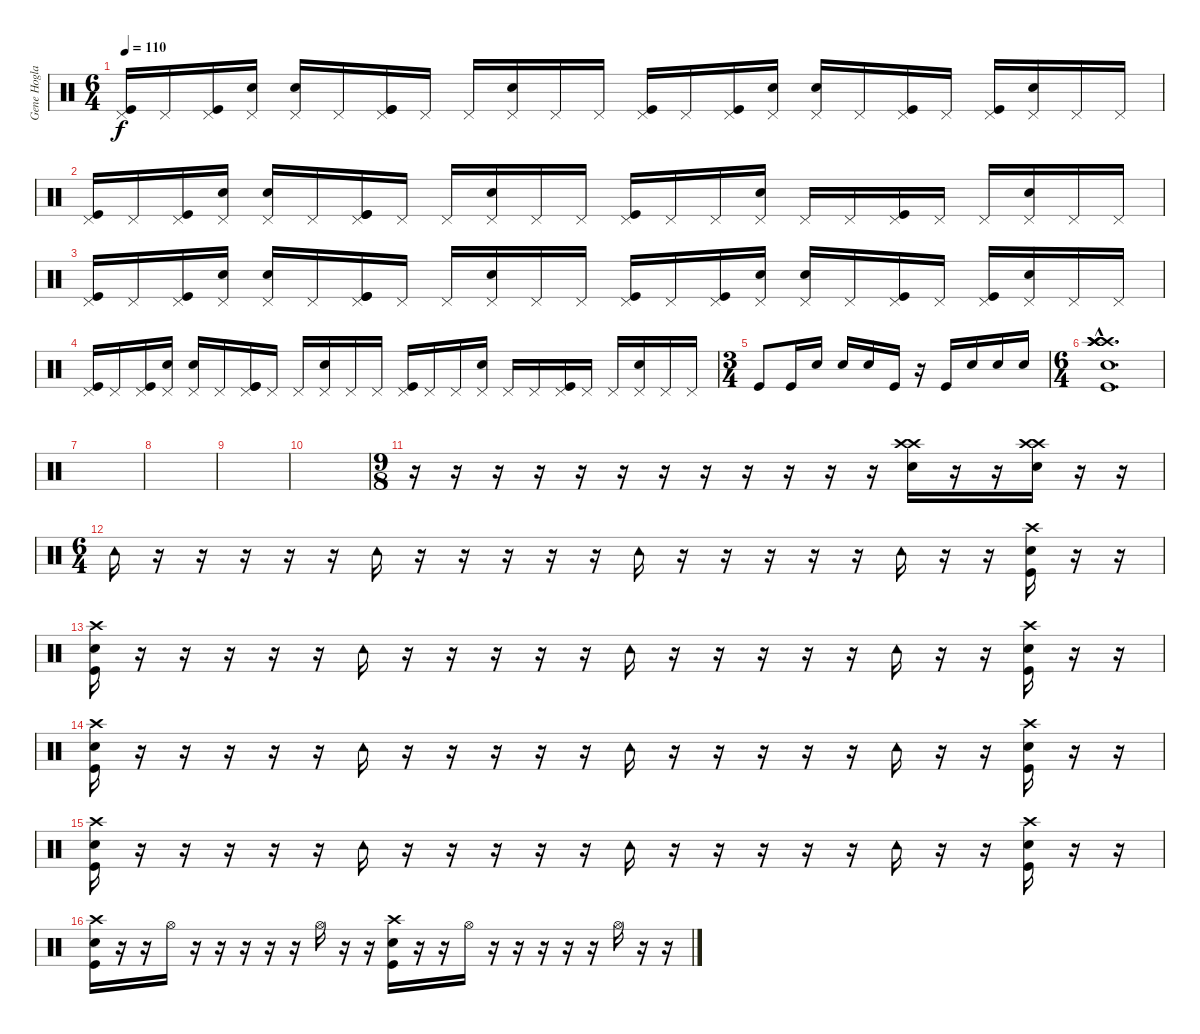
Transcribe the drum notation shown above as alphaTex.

\track ("Gene Hoglan" "Gene Hogla") {instrument percussion}
\staff {score}
\articulation defaults
\ts (6 4)
\tempo 110
\clef neutral
\ks c
("Pedal Hi-Hat (hit)" "Kick (hit)").16{dy f} "Pedal Hi-Hat (hit)".16 ("Pedal Hi-Hat (hit)" "Kick (hit)").16 ("Pedal Hi-Hat (hit)" "Snare (hit) 2").16 ("Pedal Hi-Hat (hit)" "Snare (hit) 2").16 "Pedal Hi-Hat (hit)".16 ("Pedal Hi-Hat (hit)" "Kick (hit)" "Kick (hit)").16 "Pedal Hi-Hat (hit)".16 "Pedal Hi-Hat (hit)".16 ("Pedal Hi-Hat (hit)" "Snare (hit) 2").16 "Pedal Hi-Hat (hit)".16 "Pedal Hi-Hat (hit)".16 ("Pedal Hi-Hat (hit)" "Kick (hit)").16 "Pedal Hi-Hat (hit)".16 ("Pedal Hi-Hat (hit)" "Kick (hit)").16 ("Pedal Hi-Hat (hit)" "Snare (hit) 2").16 ("Pedal Hi-Hat (hit)" "Snare (hit) 2").16 "Pedal Hi-Hat (hit)".16 ("Pedal Hi-Hat (hit)" "Kick (hit)").16 "Pedal Hi-Hat (hit)".16 ("Pedal Hi-Hat (hit)" "Kick (hit)").16 ("Pedal Hi-Hat (hit)" "Snare (hit) 2").16 "Pedal Hi-Hat (hit)".16 "Pedal Hi-Hat (hit)".16 |
("Pedal Hi-Hat (hit)" "Kick (hit)").16 "Pedal Hi-Hat (hit)".16 ("Pedal Hi-Hat (hit)" "Kick (hit)").16 ("Pedal Hi-Hat (hit)" "Snare (hit) 2").16 ("Pedal Hi-Hat (hit)" "Snare (hit) 2").16 "Pedal Hi-Hat (hit)".16 ("Pedal Hi-Hat (hit)" "Kick (hit)" "Kick (hit)").16 "Pedal Hi-Hat (hit)".16 "Pedal Hi-Hat (hit)".16 ("Pedal Hi-Hat (hit)" "Snare (hit) 2").16 "Pedal Hi-Hat (hit)".16 "Pedal Hi-Hat (hit)".16 ("Pedal Hi-Hat (hit)" "Kick (hit)").16 "Pedal Hi-Hat (hit)".16 "Pedal Hi-Hat (hit)".16 ("Pedal Hi-Hat (hit)" "Snare (hit) 2").16 "Pedal Hi-Hat (hit)".16 "Pedal Hi-Hat (hit)".16 ("Pedal Hi-Hat (hit)" "Kick (hit)").16 "Pedal Hi-Hat (hit)".16 "Pedal Hi-Hat (hit)".16 ("Pedal Hi-Hat (hit)" "Snare (hit) 2").16 "Pedal Hi-Hat (hit)".16 "Pedal Hi-Hat (hit)".16 |
("Pedal Hi-Hat (hit)" "Kick (hit)").16 "Pedal Hi-Hat (hit)".16 ("Pedal Hi-Hat (hit)" "Kick (hit)").16 ("Pedal Hi-Hat (hit)" "Snare (hit) 2").16 ("Pedal Hi-Hat (hit)" "Snare (hit) 2").16 "Pedal Hi-Hat (hit)".16 ("Pedal Hi-Hat (hit)" "Kick (hit)" "Kick (hit)").16 "Pedal Hi-Hat (hit)".16 "Pedal Hi-Hat (hit)".16 ("Pedal Hi-Hat (hit)" "Snare (hit) 2").16 "Pedal Hi-Hat (hit)".16 "Pedal Hi-Hat (hit)".16 ("Pedal Hi-Hat (hit)" "Kick (hit)").16 "Pedal Hi-Hat (hit)".16 ("Pedal Hi-Hat (hit)" "Kick (hit)").16 ("Pedal Hi-Hat (hit)" "Snare (hit) 2").16 ("Pedal Hi-Hat (hit)" "Snare (hit) 2").16 "Pedal Hi-Hat (hit)".16 ("Pedal Hi-Hat (hit)" "Kick (hit)").16 "Pedal Hi-Hat (hit)".16 ("Pedal Hi-Hat (hit)" "Kick (hit)").16 ("Pedal Hi-Hat (hit)" "Snare (hit) 2").16 "Pedal Hi-Hat (hit)".16 "Pedal Hi-Hat (hit)".16 |
("Pedal Hi-Hat (hit)" "Kick (hit)").16 "Pedal Hi-Hat (hit)".16 ("Pedal Hi-Hat (hit)" "Kick (hit)").16 ("Pedal Hi-Hat (hit)" "Snare (hit) 2").16 ("Pedal Hi-Hat (hit)" "Snare (hit) 2").16 "Pedal Hi-Hat (hit)".16 ("Pedal Hi-Hat (hit)" "Kick (hit)" "Kick (hit)").16 "Pedal Hi-Hat (hit)".16 "Pedal Hi-Hat (hit)".16 ("Pedal Hi-Hat (hit)" "Snare (hit) 2").16 "Pedal Hi-Hat (hit)".16 "Pedal Hi-Hat (hit)".16 ("Pedal Hi-Hat (hit)" "Kick (hit)").16 "Pedal Hi-Hat (hit)".16 "Pedal Hi-Hat (hit)".16 ("Pedal Hi-Hat (hit)" "Snare (hit) 2").16 "Pedal Hi-Hat (hit)".16 "Pedal Hi-Hat (hit)".16 ("Pedal Hi-Hat (hit)" "Kick (hit)").16 "Pedal Hi-Hat (hit)".16 "Pedal Hi-Hat (hit)".16 ("Pedal Hi-Hat (hit)" "Snare (hit) 2").16 "Pedal Hi-Hat (hit)".16 "Pedal Hi-Hat (hit)".16 |
\ts (3 4)
"Kick (hit)".8 "Kick (hit)".16 "Snare (hit) 2".16 "Snare (hit) 2".16 "Snare (hit) 2".16 "Kick (hit)".16 r.16 "Kick (hit)".16 "Snare (hit) 2".16 "Snare (hit) 2".16 "Snare (hit) 2".16 |
\ts (6 4)
("Crash high (hit)"{hac} "Crash high (hit)"{hac} "Crash high (hit)"{hac} "Crash high (hit)"{hac} "Snare (hit) 2"{hac} "Kick (hit)"{hac}).1{d} |
|
|
|
|
\ts (9 8)
r.16 r.16 r.16 r.16 r.16 r.16 r.16 r.16 r.16 r.16 r.16 r.16 ("Crash high (hit)" "Crash high (hit)" "Snare (hit) 2").16 r.16 r.16 ("Crash high (hit)" "Crash high (hit)" "Snare (hit) 2").16 r.16 r.16 |
\ts (6 4)
"Tambourine (hit)".16 r.16 r.16 r.16 r.16 r.16 "Tambourine (hit)".16 r.16 r.16 r.16 r.16 r.16 "Tambourine (hit)".16 r.16 r.16 r.16 r.16 r.16 "Tambourine (hit)".16 r.16 r.16 ("Crash high (hit)" "Snare (hit) 2" "Kick (hit)").16 r.16 r.16 |
("Crash high (hit)" "Snare (hit) 2" "Kick (hit)").16 r.16 r.16 r.16 r.16 r.16 "Tambourine (hit)".16 r.16 r.16 r.16 r.16 r.16 "Tambourine (hit)".16 r.16 r.16 r.16 r.16 r.16 "Tambourine (hit)".16 r.16 r.16 ("Crash high (hit)" "Snare (hit) 2" "Kick (hit)").16 r.16 r.16 |
("Crash high (hit)" "Snare (hit) 2" "Kick (hit)").16 r.16 r.16 r.16 r.16 r.16 "Tambourine (hit)".16 r.16 r.16 r.16 r.16 r.16 "Tambourine (hit)".16 r.16 r.16 r.16 r.16 r.16 "Tambourine (hit)".16 r.16 r.16 ("Crash high (hit)" "Snare (hit) 2" "Kick (hit)").16 r.16 r.16 |
("Crash high (hit)" "Snare (hit) 2" "Kick (hit)").16 r.16 r.16 r.16 r.16 r.16 "Tambourine (hit)".16 r.16 r.16 r.16 r.16 r.16 "Tambourine (hit)".16 r.16 r.16 r.16 r.16 r.16 "Tambourine (hit)".16 r.16 r.16 ("Crash high (hit)" "Snare (hit) 2" "Kick (hit)").16 r.16 r.16 |
("Crash high (hit)" "Snare (hit) 2" "Kick (hit)").16 r.16 r.16 "Hi-Hat (open)".16 r.16 r.16 r.16 r.16 r.16 "Hi-Hat (open)".16 r.16 r.16 ("Crash high (hit)" "Snare (hit) 2" "Kick (hit)").16 r.16 r.16 "Hi-Hat (open)".16 r.16 r.16 r.16 r.16 r.16 "Hi-Hat (open)".16 r.16 r.16
